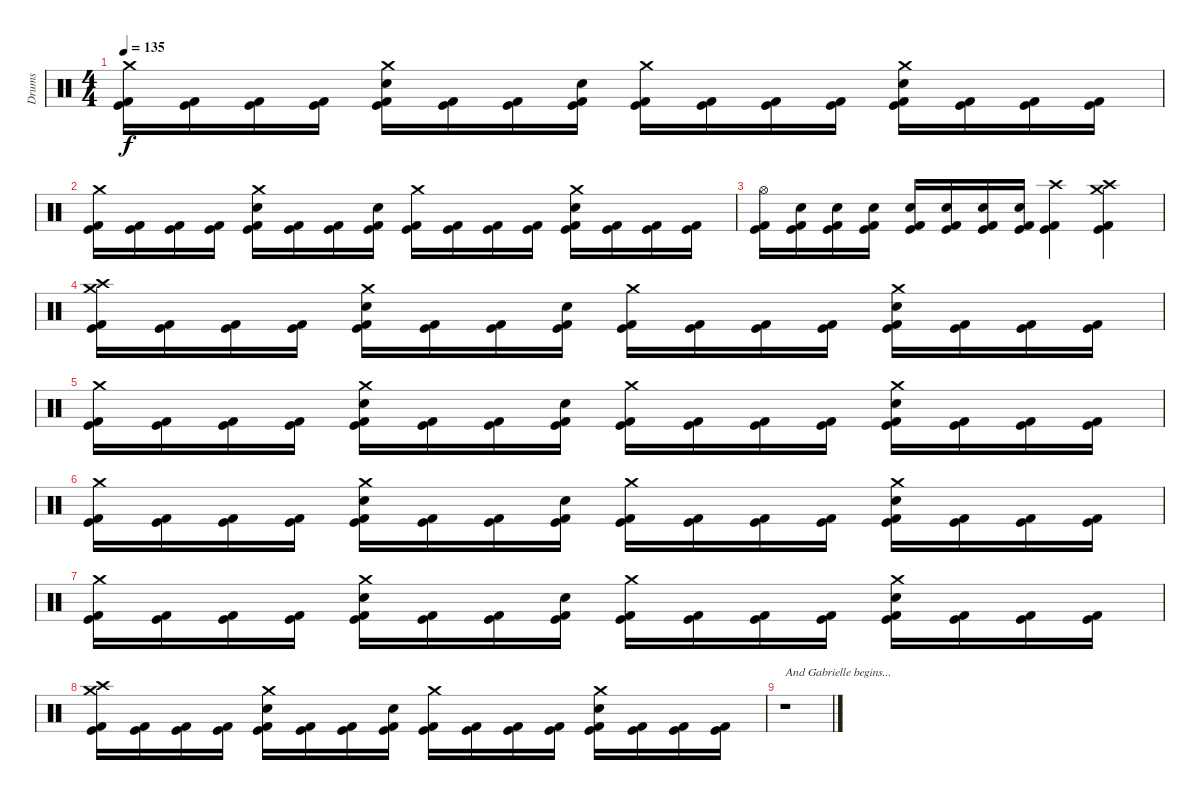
\track ("Drums" "Drums") {instrument percussion}
\staff {score}
\articulation defaults
\ts (4 4)
\tempo 135
\clef neutral
\ks c
("Crash medium (hit)" "Kick (hit)" "Kick (hit) 2").16{dy f} ("Kick (hit)" "Kick (hit) 2").16 ("Kick (hit)" "Kick (hit) 2").16 ("Kick (hit)" "Kick (hit) 2").16 ("Crash medium (hit)" "Electric Snare (hit)" "Kick (hit)" "Kick (hit) 2").16 ("Kick (hit)" "Kick (hit) 2").16 ("Kick (hit)" "Kick (hit) 2").16 ("Electric Snare (hit)" "Kick (hit)" "Kick (hit) 2").16 ("Crash medium (hit)" "Kick (hit)" "Kick (hit) 2").16 ("Kick (hit)" "Kick (hit) 2").16 ("Kick (hit)" "Kick (hit) 2").16 ("Kick (hit)" "Kick (hit) 2").16 ("Crash medium (hit)" "Electric Snare (hit)" "Kick (hit)" "Kick (hit) 2").16 ("Kick (hit)" "Kick (hit) 2").16 ("Kick (hit)" "Kick (hit) 2").16 ("Kick (hit)" "Kick (hit) 2").16 |
("Crash medium (hit)" "Kick (hit)" "Kick (hit) 2").16 ("Kick (hit)" "Kick (hit) 2").16 ("Kick (hit)" "Kick (hit) 2").16 ("Kick (hit)" "Kick (hit) 2").16 ("Crash medium (hit)" "Electric Snare (hit)" "Kick (hit)" "Kick (hit) 2").16 ("Kick (hit)" "Kick (hit) 2").16 ("Kick (hit)" "Kick (hit) 2").16 ("Electric Snare (hit)" "Kick (hit)" "Kick (hit) 2").16 ("Crash medium (hit)" "Kick (hit)" "Kick (hit) 2").16 ("Kick (hit)" "Kick (hit) 2").16 ("Kick (hit)" "Kick (hit) 2").16 ("Kick (hit)" "Kick (hit) 2").16 ("Crash medium (hit)" "Electric Snare (hit)" "Kick (hit)" "Kick (hit) 2").16 ("Kick (hit)" "Kick (hit) 2").16 ("Kick (hit)" "Kick (hit) 2").16 ("Kick (hit)" "Kick (hit) 2").16 |
("Hi-Hat (open)" "Kick (hit)" "Kick (hit) 2").16 ("Electric Snare (hit)" "Kick (hit)" "Kick (hit) 2").16 ("Electric Snare (hit)" "Kick (hit)" "Kick (hit) 2").16 ("Electric Snare (hit)" "Kick (hit)" "Kick (hit) 2").16 ("Electric Snare (hit)" "Kick (hit)" "Kick (hit) 2").16 ("Electric Snare (hit)" "Kick (hit)" "Kick (hit) 2").16 ("Electric Snare (hit)" "Kick (hit)" "Kick (hit) 2").16 ("Electric Snare (hit)" "Kick (hit)" "Kick (hit) 2").16 ("Crash high (hit)" "Kick (hit)" "Kick (hit) 2").4 ("Crash high (hit)" "Crash medium (hit)" "Kick (hit)" "Kick (hit) 2").4 |
("Crash medium (hit)" "Crash high (hit)" "Kick (hit)" "Kick (hit) 2").16 ("Kick (hit)" "Kick (hit) 2").16 ("Kick (hit)" "Kick (hit) 2").16 ("Kick (hit)" "Kick (hit) 2").16 ("Crash medium (hit)" "Electric Snare (hit)" "Kick (hit)" "Kick (hit) 2").16 ("Kick (hit)" "Kick (hit) 2").16 ("Kick (hit)" "Kick (hit) 2").16 ("Electric Snare (hit)" "Kick (hit)" "Kick (hit) 2").16 ("Crash medium (hit)" "Kick (hit)" "Kick (hit) 2").16 ("Kick (hit)" "Kick (hit) 2").16 ("Kick (hit)" "Kick (hit) 2").16 ("Kick (hit)" "Kick (hit) 2").16 ("Crash medium (hit)" "Electric Snare (hit)" "Kick (hit)" "Kick (hit) 2").16 ("Kick (hit)" "Kick (hit) 2").16 ("Kick (hit)" "Kick (hit) 2").16 ("Kick (hit)" "Kick (hit) 2").16 |
("Crash medium (hit)" "Kick (hit)" "Kick (hit) 2").16 ("Kick (hit)" "Kick (hit) 2").16 ("Kick (hit)" "Kick (hit) 2").16 ("Kick (hit)" "Kick (hit) 2").16 ("Crash medium (hit)" "Electric Snare (hit)" "Kick (hit)" "Kick (hit) 2").16 ("Kick (hit)" "Kick (hit) 2").16 ("Kick (hit)" "Kick (hit) 2").16 ("Electric Snare (hit)" "Kick (hit)" "Kick (hit) 2").16 ("Crash medium (hit)" "Kick (hit)" "Kick (hit) 2").16 ("Kick (hit)" "Kick (hit) 2").16 ("Kick (hit)" "Kick (hit) 2").16 ("Kick (hit)" "Kick (hit) 2").16 ("Crash medium (hit)" "Electric Snare (hit)" "Kick (hit)" "Kick (hit) 2").16 ("Kick (hit)" "Kick (hit) 2").16 ("Kick (hit)" "Kick (hit) 2").16 ("Kick (hit)" "Kick (hit) 2").16 |
("Crash medium (hit)" "Kick (hit)" "Kick (hit) 2").16 ("Kick (hit)" "Kick (hit) 2").16 ("Kick (hit)" "Kick (hit) 2").16 ("Kick (hit)" "Kick (hit) 2").16 ("Crash medium (hit)" "Electric Snare (hit)" "Kick (hit)" "Kick (hit) 2").16 ("Kick (hit)" "Kick (hit) 2").16 ("Kick (hit)" "Kick (hit) 2").16 ("Electric Snare (hit)" "Kick (hit)" "Kick (hit) 2").16 ("Crash medium (hit)" "Kick (hit)" "Kick (hit) 2").16 ("Kick (hit)" "Kick (hit) 2").16 ("Kick (hit)" "Kick (hit) 2").16 ("Kick (hit)" "Kick (hit) 2").16 ("Crash medium (hit)" "Electric Snare (hit)" "Kick (hit)" "Kick (hit) 2").16 ("Kick (hit)" "Kick (hit) 2").16 ("Kick (hit)" "Kick (hit) 2").16 ("Kick (hit)" "Kick (hit) 2").16 |
("Crash medium (hit)" "Kick (hit)" "Kick (hit) 2").16 ("Kick (hit)" "Kick (hit) 2").16 ("Kick (hit)" "Kick (hit) 2").16 ("Kick (hit)" "Kick (hit) 2").16 ("Crash medium (hit)" "Electric Snare (hit)" "Kick (hit)" "Kick (hit) 2").16 ("Kick (hit)" "Kick (hit) 2").16 ("Kick (hit)" "Kick (hit) 2").16 ("Electric Snare (hit)" "Kick (hit)" "Kick (hit) 2").16 ("Crash medium (hit)" "Kick (hit)" "Kick (hit) 2").16 ("Kick (hit)" "Kick (hit) 2").16 ("Kick (hit)" "Kick (hit) 2").16 ("Kick (hit)" "Kick (hit) 2").16 ("Crash medium (hit)" "Electric Snare (hit)" "Kick (hit)" "Kick (hit) 2").16 ("Kick (hit)" "Kick (hit) 2").16 ("Kick (hit)" "Kick (hit) 2").16 ("Kick (hit)" "Kick (hit) 2").16 |
("Crash medium (hit)" "Crash high (hit)" "Kick (hit)" "Kick (hit) 2").16 ("Kick (hit)" "Kick (hit) 2").16 ("Kick (hit)" "Kick (hit) 2").16 ("Kick (hit)" "Kick (hit) 2").16 ("Crash medium (hit)" "Electric Snare (hit)" "Kick (hit)" "Kick (hit) 2").16 ("Kick (hit)" "Kick (hit) 2").16 ("Kick (hit)" "Kick (hit) 2").16 ("Electric Snare (hit)" "Kick (hit)" "Kick (hit) 2").16 ("Crash medium (hit)" "Kick (hit)" "Kick (hit) 2").16 ("Kick (hit)" "Kick (hit) 2").16 ("Kick (hit)" "Kick (hit) 2").16 ("Kick (hit)" "Kick (hit) 2").16 ("Crash medium (hit)" "Electric Snare (hit)" "Kick (hit)" "Kick (hit) 2").16 ("Kick (hit)" "Kick (hit) 2").16 ("Kick (hit)" "Kick (hit) 2").16 ("Kick (hit)" "Kick (hit) 2").16 |
r.1{txt "And Gabrielle begins..."}
